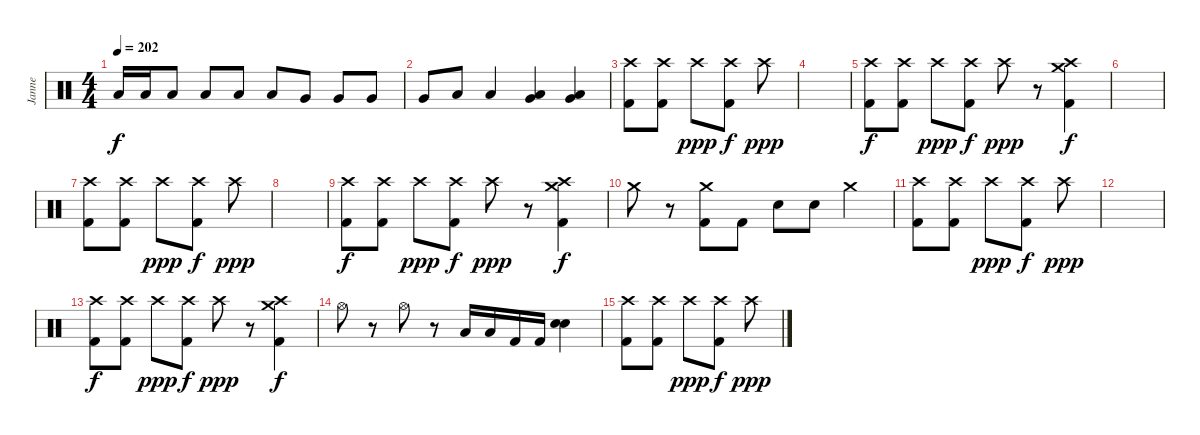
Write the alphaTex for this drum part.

\track ("Janne" "Janne") {instrument percussion}
\staff {score}
\articulation defaults
\ts (4 4)
\tempo 202
\clef neutral
\ks c "Low Tom (hit)".16{dy f} "Low Tom (hit)".16 "Low Tom (hit)".8 "Low Tom (hit)".8 "Low Tom (hit)".8 "Low Tom (hit)".8 "Very Low Tom (hit)".8 "Very Low Tom (hit)".8 "Very Low Tom (hit)".8
|
"Very Low Tom (hit)".8 "Low Floor Tom (hit)".8 "Low Floor Tom (hit)".4 ("Low Floor Tom (hit)" "Very Low Tom (hit)").4 ("Low Floor Tom (hit)" "Very Low Tom (hit)").4 |
("Crash high (hit)" "Kick (hit) 2").8 ("Crash high (hit)" "Kick (hit) 2").8 "Crash high (hit)".8{dy ppp} ("Crash high (hit)" "Kick (hit) 2").8{dy f} "Crash high (hit)".8{dy ppp} |
|
("Crash high (hit)" "Kick (hit) 2").8{dy f} ("Crash high (hit)" "Kick (hit) 2").8 "Crash high (hit)".8{dy ppp} ("Crash high (hit)" "Kick (hit) 2").8{dy f} "Crash high (hit)".8{dy ppp} r.8 ("Crash medium (hit)" "Crash high (hit)" "Kick (hit) 2").4{dy f} |
|
("Crash high (hit)" "Kick (hit) 2").8 ("Crash high (hit)" "Kick (hit) 2").8 "Crash high (hit)".8{dy ppp} ("Crash high (hit)" "Kick (hit) 2").8{dy f} "Crash high (hit)".8{dy ppp} |
|
("Crash high (hit)" "Kick (hit) 2").8{dy f} ("Crash high (hit)" "Kick (hit) 2").8 "Crash high (hit)".8{dy ppp} ("Crash high (hit)" "Kick (hit) 2").8{dy f} "Crash high (hit)".8{dy ppp} r.8 ("Crash medium (hit)" "Crash high (hit)" "Kick (hit) 2").4{dy f} |
"Crash medium (hit)".8 r.8 ("Crash medium (hit)" "Kick (hit) 2").8 "Kick (hit) 2".8 "Electric Snare (hit)".8 "Electric Snare (hit)".8 "Crash medium (hit)".4 |
("Crash high (hit)" "Kick (hit) 2").8 ("Crash high (hit)" "Kick (hit) 2").8 "Crash high (hit)".8{dy ppp} ("Crash high (hit)" "Kick (hit) 2").8{dy f} "Crash high (hit)".8{dy ppp} |
|
("Crash high (hit)" "Kick (hit) 2").8{dy f} ("Crash high (hit)" "Kick (hit) 2").8 "Crash high (hit)".8{dy ppp} ("Crash high (hit)" "Kick (hit) 2").8{dy f} "Crash high (hit)".8{dy ppp} r.8 ("Crash medium (hit)" "Crash high (hit)" "Kick (hit) 2").4{dy f} |
"Hi-Hat (open)".8 r.8 "Hi-Hat (open)".8 r.8 "Low Tom (hit)".16 "Low Tom (hit)".16 "Kick (hit) 2".16 "Kick (hit) 2".16 ("Electric Snare (hit)" "Electric Snare (hit)").4 |
("Crash high (hit)" "Kick (hit) 2").8 ("Crash high (hit)" "Kick (hit) 2").8 "Crash high (hit)".8{dy ppp} ("Crash high (hit)" "Kick (hit) 2").8{dy f} "Crash high (hit)".8{dy ppp}
